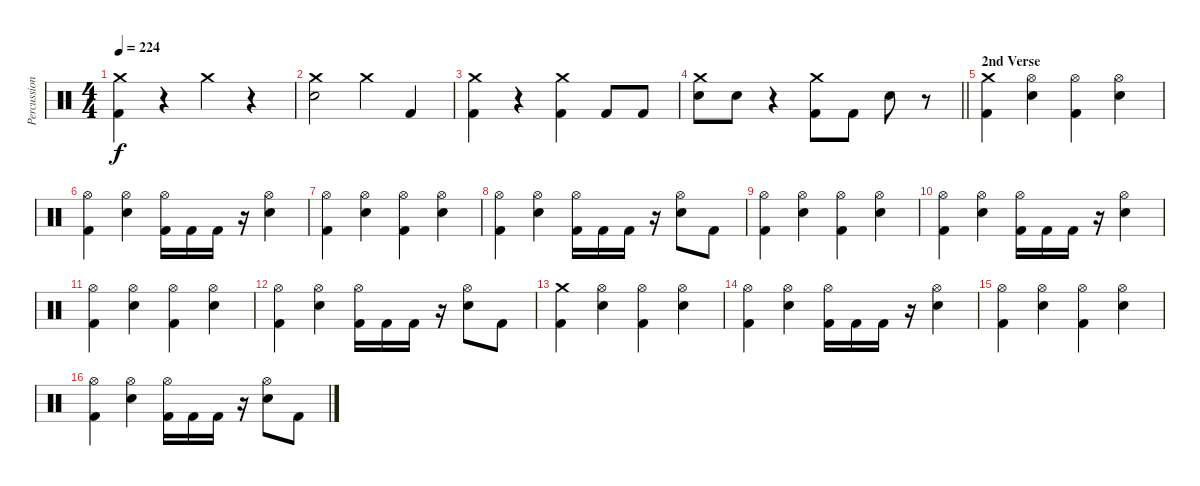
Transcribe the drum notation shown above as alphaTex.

\track ("Percussion" "Percussion") {instrument percussion}
\staff {score}
\articulation defaults
\ts (4 4)
\tempo 224
\clef neutral
\ks c
("Kick (hit) 2" "Crash medium (hit)").4{dy f} r.4 "Crash medium (hit)".4 r.4 |
("Snare (hit) 2" "Crash medium (hit)").2 "Crash medium (hit)".4 "Kick (hit) 2".4 |
("Kick (hit) 2" "Crash medium (hit)").4 r.4 ("Kick (hit) 2" "Crash medium (hit)").4 "Kick (hit) 2".8 "Kick (hit) 2".8 |
\barLineRight lightlight
("Snare (hit) 2" "Crash medium (hit)").8 "Snare (hit) 2".8 r.4 ("Kick (hit) 2" "Crash medium (hit)").8 "Kick (hit) 2".8 "Snare (hit) 2".8 r.8 |
\section ("" "2nd Verse")
("Kick (hit) 2" "Crash medium (hit)").4 ("Snare (hit) 2" "Hi-Hat (open)").4 ("Kick (hit) 2" "Hi-Hat (open)").4 ("Snare (hit) 2" "Hi-Hat (open)").4 |
("Kick (hit) 2" "Hi-Hat (open)").4 ("Snare (hit) 2" "Hi-Hat (open)").4 ("Kick (hit) 2" "Hi-Hat (open)").16 "Kick (hit) 2".16 "Kick (hit) 2".16 r.16 ("Snare (hit) 2" "Hi-Hat (open)").4 |
("Kick (hit) 2" "Hi-Hat (open)").4 ("Snare (hit) 2" "Hi-Hat (open)").4 ("Kick (hit) 2" "Hi-Hat (open)").4 ("Snare (hit) 2" "Hi-Hat (open)").4 |
("Kick (hit) 2" "Hi-Hat (open)").4 ("Snare (hit) 2" "Hi-Hat (open)").4 ("Kick (hit) 2" "Hi-Hat (open)").16 "Kick (hit) 2".16 "Kick (hit) 2".16 r.16 ("Snare (hit) 2" "Hi-Hat (open)").8 "Kick (hit) 2".8 |
("Kick (hit) 2" "Hi-Hat (open)").4 ("Snare (hit) 2" "Hi-Hat (open)").4 ("Kick (hit) 2" "Hi-Hat (open)").4 ("Snare (hit) 2" "Hi-Hat (open)").4 |
("Kick (hit) 2" "Hi-Hat (open)").4 ("Snare (hit) 2" "Hi-Hat (open)").4 ("Kick (hit) 2" "Hi-Hat (open)").16 "Kick (hit) 2".16 "Kick (hit) 2".16 r.16 ("Snare (hit) 2" "Hi-Hat (open)").4 |
("Kick (hit) 2" "Hi-Hat (open)").4 ("Snare (hit) 2" "Hi-Hat (open)").4 ("Kick (hit) 2" "Hi-Hat (open)").4 ("Snare (hit) 2" "Hi-Hat (open)").4 |
("Kick (hit) 2" "Hi-Hat (open)").4 ("Snare (hit) 2" "Hi-Hat (open)").4 ("Kick (hit) 2" "Hi-Hat (open)").16 "Kick (hit) 2".16 "Kick (hit) 2".16 r.16 ("Snare (hit) 2" "Hi-Hat (open)").8 "Kick (hit) 2".8 |
("Kick (hit) 2" "Crash medium (hit)").4 ("Snare (hit) 2" "Hi-Hat (open)").4 ("Kick (hit) 2" "Hi-Hat (open)").4 ("Snare (hit) 2" "Hi-Hat (open)").4 |
("Kick (hit) 2" "Hi-Hat (open)").4 ("Snare (hit) 2" "Hi-Hat (open)").4 ("Kick (hit) 2" "Hi-Hat (open)").16 "Kick (hit) 2".16 "Kick (hit) 2".16 r.16 ("Snare (hit) 2" "Hi-Hat (open)").4 |
("Kick (hit) 2" "Hi-Hat (open)").4 ("Snare (hit) 2" "Hi-Hat (open)").4 ("Kick (hit) 2" "Hi-Hat (open)").4 ("Snare (hit) 2" "Hi-Hat (open)").4 |
("Kick (hit) 2" "Hi-Hat (open)").4 ("Snare (hit) 2" "Hi-Hat (open)").4 ("Kick (hit) 2" "Hi-Hat (open)").16 "Kick (hit) 2".16 "Kick (hit) 2".16 r.16 ("Snare (hit) 2" "Hi-Hat (open)").8 "Kick (hit) 2".8
